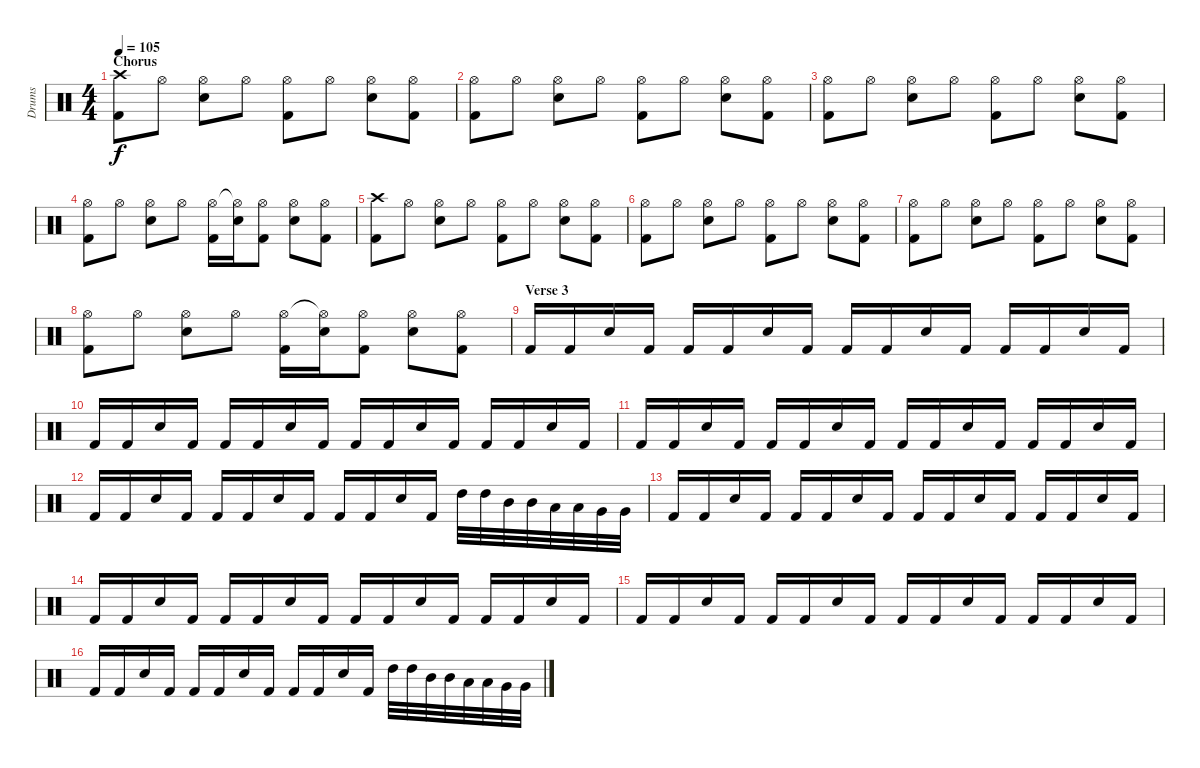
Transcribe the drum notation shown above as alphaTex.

\track ("Drums" "Drums") {instrument percussion}
\staff {score}
\articulation defaults
\ts (4 4)
\section ("" "Chorus")
\tempo 105
\clef neutral
\ks c
("Crash high (hit)" "Kick (hit) 2").8{dy f} "Hi-Hat (open)".8 ("Hi-Hat (open)" "Electric Snare (hit)").8 "Hi-Hat (open)".8 ("Hi-Hat (open)" "Kick (hit) 2").8 "Hi-Hat (open)".8 ("Hi-Hat (open)" "Electric Snare (hit)").8 ("Hi-Hat (open)" "Kick (hit) 2").8 |
("Hi-Hat (open)" "Kick (hit) 2").8 "Hi-Hat (open)".8 ("Hi-Hat (open)" "Electric Snare (hit)").8 "Hi-Hat (open)".8 ("Hi-Hat (open)" "Kick (hit) 2").8 "Hi-Hat (open)".8 ("Hi-Hat (open)" "Electric Snare (hit)").8 ("Hi-Hat (open)" "Kick (hit) 2").8 |
("Hi-Hat (open)" "Kick (hit) 2").8 "Hi-Hat (open)".8 ("Hi-Hat (open)" "Electric Snare (hit)").8 "Hi-Hat (open)".8 ("Hi-Hat (open)" "Kick (hit) 2").8 "Hi-Hat (open)".8 ("Hi-Hat (open)" "Electric Snare (hit)").8 ("Hi-Hat (open)" "Kick (hit) 2").8 |
("Hi-Hat (open)" "Kick (hit) 2").8 "Hi-Hat (open)".8 ("Hi-Hat (open)" "Electric Snare (hit)").8 "Hi-Hat (open)".8 ("Hi-Hat (open)" "Kick (hit) 2").16 ("Hi-Hat (open)"{t} "Electric Snare (hit)").16 ("Hi-Hat (open)" "Kick (hit) 2").8 ("Hi-Hat (open)" "Electric Snare (hit)").8 ("Hi-Hat (open)" "Kick (hit) 2").8 |
("Crash high (hit)" "Kick (hit) 2").8 "Hi-Hat (open)".8 ("Hi-Hat (open)" "Electric Snare (hit)").8 "Hi-Hat (open)".8 ("Hi-Hat (open)" "Kick (hit) 2").8 "Hi-Hat (open)".8 ("Hi-Hat (open)" "Electric Snare (hit)").8 ("Hi-Hat (open)" "Kick (hit) 2").8 |
("Hi-Hat (open)" "Kick (hit) 2").8 "Hi-Hat (open)".8 ("Hi-Hat (open)" "Electric Snare (hit)").8 "Hi-Hat (open)".8 ("Hi-Hat (open)" "Kick (hit) 2").8 "Hi-Hat (open)".8 ("Hi-Hat (open)" "Electric Snare (hit)").8 ("Hi-Hat (open)" "Kick (hit) 2").8 |
("Hi-Hat (open)" "Kick (hit) 2").8 "Hi-Hat (open)".8 ("Hi-Hat (open)" "Electric Snare (hit)").8 "Hi-Hat (open)".8 ("Hi-Hat (open)" "Kick (hit) 2").8 "Hi-Hat (open)".8 ("Hi-Hat (open)" "Electric Snare (hit)").8 ("Hi-Hat (open)" "Kick (hit) 2").8 |
("Hi-Hat (open)" "Kick (hit) 2").8 "Hi-Hat (open)".8 ("Hi-Hat (open)" "Electric Snare (hit)").8 "Hi-Hat (open)".8 ("Hi-Hat (open)" "Kick (hit) 2").16 ("Hi-Hat (open)"{t} "Electric Snare (hit)").16 ("Hi-Hat (open)" "Kick (hit) 2").8 ("Hi-Hat (open)" "Electric Snare (hit)").8 ("Hi-Hat (open)" "Kick (hit) 2").8 |
\section ("" "Verse 3")
"Kick (hit) 2".16 "Kick (hit) 2".16 "Electric Snare (hit)".16 "Kick (hit) 2".16 "Kick (hit) 2".16 "Kick (hit) 2".16 "Electric Snare (hit)".16 "Kick (hit) 2".16 "Kick (hit) 2".16 "Kick (hit) 2".16 "Electric Snare (hit)".16 "Kick (hit) 2".16 "Kick (hit) 2".16 "Kick (hit) 2".16 "Electric Snare (hit)".16 "Kick (hit) 2".16 |
"Kick (hit) 2".16 "Kick (hit) 2".16 "Electric Snare (hit)".16 "Kick (hit) 2".16 "Kick (hit) 2".16 "Kick (hit) 2".16 "Electric Snare (hit)".16 "Kick (hit) 2".16 "Kick (hit) 2".16 "Kick (hit) 2".16 "Electric Snare (hit)".16 "Kick (hit) 2".16 "Kick (hit) 2".16 "Kick (hit) 2".16 "Electric Snare (hit)".16 "Kick (hit) 2".16 |
"Kick (hit) 2".16 "Kick (hit) 2".16 "Electric Snare (hit)".16 "Kick (hit) 2".16 "Kick (hit) 2".16 "Kick (hit) 2".16 "Electric Snare (hit)".16 "Kick (hit) 2".16 "Kick (hit) 2".16 "Kick (hit) 2".16 "Electric Snare (hit)".16 "Kick (hit) 2".16 "Kick (hit) 2".16 "Kick (hit) 2".16 "Electric Snare (hit)".16 "Kick (hit) 2".16 |
"Kick (hit) 2".16 "Kick (hit) 2".16 "Electric Snare (hit)".16 "Kick (hit) 2".16 "Kick (hit) 2".16 "Kick (hit) 2".16 "Electric Snare (hit)".16 "Kick (hit) 2".16 "Kick (hit) 2".16 "Kick (hit) 2".16 "Electric Snare (hit)".16 "Kick (hit) 2".16 "High Tom (hit)".32 "High Tom (hit)".32 "Mid Tom (hit)".32 "Mid Tom (hit)".32 "Low Tom (hit)".32 "Low Tom (hit)".32 "Very Low Tom (hit)".32 "Very Low Tom (hit)".32 |
"Kick (hit) 2".16 "Kick (hit) 2".16 "Electric Snare (hit)".16 "Kick (hit) 2".16 "Kick (hit) 2".16 "Kick (hit) 2".16 "Electric Snare (hit)".16 "Kick (hit) 2".16 "Kick (hit) 2".16 "Kick (hit) 2".16 "Electric Snare (hit)".16 "Kick (hit) 2".16 "Kick (hit) 2".16 "Kick (hit) 2".16 "Electric Snare (hit)".16 "Kick (hit) 2".16 |
"Kick (hit) 2".16 "Kick (hit) 2".16 "Electric Snare (hit)".16 "Kick (hit) 2".16 "Kick (hit) 2".16 "Kick (hit) 2".16 "Electric Snare (hit)".16 "Kick (hit) 2".16 "Kick (hit) 2".16 "Kick (hit) 2".16 "Electric Snare (hit)".16 "Kick (hit) 2".16 "Kick (hit) 2".16 "Kick (hit) 2".16 "Electric Snare (hit)".16 "Kick (hit) 2".16 |
"Kick (hit) 2".16 "Kick (hit) 2".16 "Electric Snare (hit)".16 "Kick (hit) 2".16 "Kick (hit) 2".16 "Kick (hit) 2".16 "Electric Snare (hit)".16 "Kick (hit) 2".16 "Kick (hit) 2".16 "Kick (hit) 2".16 "Electric Snare (hit)".16 "Kick (hit) 2".16 "Kick (hit) 2".16 "Kick (hit) 2".16 "Electric Snare (hit)".16 "Kick (hit) 2".16 |
"Kick (hit) 2".16 "Kick (hit) 2".16 "Electric Snare (hit)".16 "Kick (hit) 2".16 "Kick (hit) 2".16 "Kick (hit) 2".16 "Electric Snare (hit)".16 "Kick (hit) 2".16 "Kick (hit) 2".16 "Kick (hit) 2".16 "Electric Snare (hit)".16 "Kick (hit) 2".16 "High Tom (hit)".32 "High Tom (hit)".32 "Mid Tom (hit)".32 "Mid Tom (hit)".32 "Low Tom (hit)".32 "Low Tom (hit)".32 "Very Low Tom (hit)".32 "Very Low Tom (hit)".32
